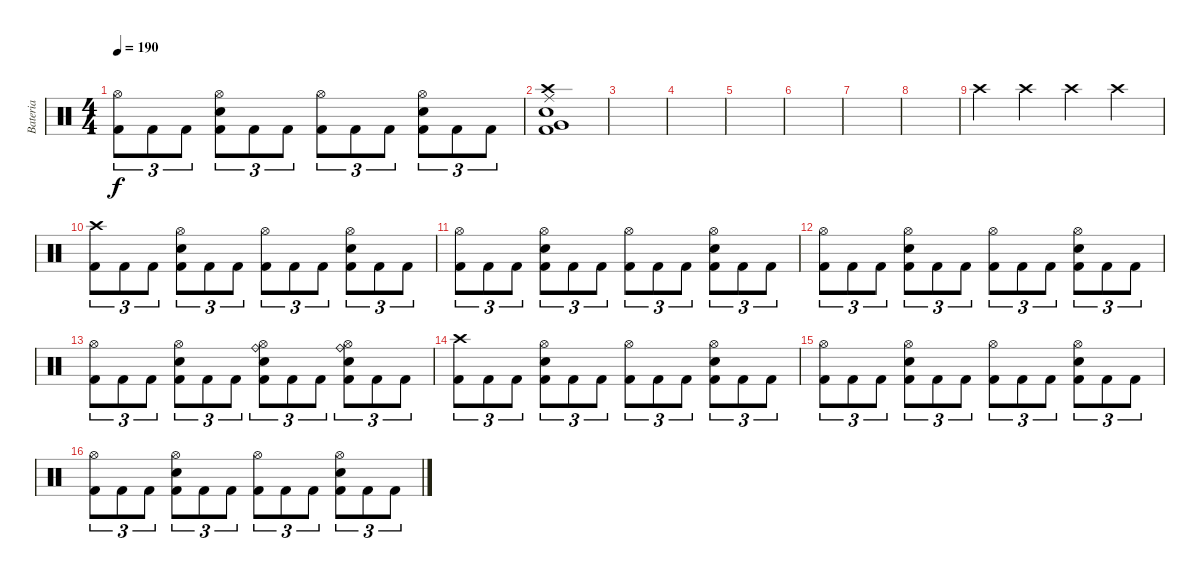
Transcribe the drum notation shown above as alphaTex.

\track ("Bateria" "Bateria") {instrument percussion}
\staff {score}
\articulation defaults
\ts (4 4)
\tempo 190
\clef neutral
\ks c
("Hi-Hat (open)" "Kick (hit) 2").8{tu (3 2) dy f} "Kick (hit) 2".8{tu (3 2)} "Kick (hit) 2".8{tu (3 2)} ("Hi-Hat (open)" "Electric Snare (hit)" "Kick (hit) 2").8{tu (3 2)} "Kick (hit) 2".8{tu (3 2)} "Kick (hit) 2".8{tu (3 2)} ("Hi-Hat (open)" "Kick (hit) 2").8{tu (3 2)} "Kick (hit) 2".8{tu (3 2)} "Kick (hit) 2".8{tu (3 2)} ("Hi-Hat (open)" "Electric Snare (hit)" "Kick (hit) 2").8{tu (3 2)} "Kick (hit) 2".8{tu (3 2)} "Kick (hit) 2".8{tu (3 2)} |
("Crash high (hit)" "Electric Snare (hit)" "Ride (middle)" "Kick (hit) 2" "Very Low Tom (hit)").1 |
|
|
|
|
|
|
"Crash high (hit)".4 "Crash high (hit)".4 "Crash high (hit)".4 "Crash high (hit)".4 |
("Crash high (hit)" "Kick (hit) 2").8{tu (3 2)} "Kick (hit) 2".8{tu (3 2)} "Kick (hit) 2".8{tu (3 2)} ("Hi-Hat (open)" "Electric Snare (hit)" "Kick (hit) 2").8{tu (3 2)} "Kick (hit) 2".8{tu (3 2)} "Kick (hit) 2".8{tu (3 2)} ("Hi-Hat (open)" "Kick (hit) 2").8{tu (3 2)} "Kick (hit) 2".8{tu (3 2)} "Kick (hit) 2".8{tu (3 2)} ("Hi-Hat (open)" "Electric Snare (hit)" "Kick (hit) 2").8{tu (3 2)} "Kick (hit) 2".8{tu (3 2)} "Kick (hit) 2".8{tu (3 2)} |
("Hi-Hat (open)" "Kick (hit) 2").8{tu (3 2)} "Kick (hit) 2".8{tu (3 2)} "Kick (hit) 2".8{tu (3 2)} ("Hi-Hat (open)" "Electric Snare (hit)" "Kick (hit) 2").8{tu (3 2)} "Kick (hit) 2".8{tu (3 2)} "Kick (hit) 2".8{tu (3 2)} ("Hi-Hat (open)" "Kick (hit) 2").8{tu (3 2)} "Kick (hit) 2".8{tu (3 2)} "Kick (hit) 2".8{tu (3 2)} ("Hi-Hat (open)" "Electric Snare (hit)" "Kick (hit) 2").8{tu (3 2)} "Kick (hit) 2".8{tu (3 2)} "Kick (hit) 2".8{tu (3 2)} |
("Hi-Hat (open)" "Kick (hit) 2").8{tu (3 2)} "Kick (hit) 2".8{tu (3 2)} "Kick (hit) 2".8{tu (3 2)} ("Hi-Hat (open)" "Electric Snare (hit)" "Kick (hit) 2").8{tu (3 2)} "Kick (hit) 2".8{tu (3 2)} "Kick (hit) 2".8{tu (3 2)} ("Hi-Hat (open)" "Kick (hit) 2").8{tu (3 2)} "Kick (hit) 2".8{tu (3 2)} "Kick (hit) 2".8{tu (3 2)} ("Hi-Hat (open)" "Electric Snare (hit)" "Kick (hit) 2").8{tu (3 2)} "Kick (hit) 2".8{tu (3 2)} "Kick (hit) 2".8{tu (3 2)} |
("Hi-Hat (open)" "Kick (hit) 2").8{tu (3 2)} "Kick (hit) 2".8{tu (3 2)} "Kick (hit) 2".8{tu (3 2)} ("Hi-Hat (open)" "Electric Snare (hit)" "Kick (hit) 2").8{tu (3 2)} "Kick (hit) 2".8{tu (3 2)} "Kick (hit) 2".8{tu (3 2)} ("Ride (bell)" "Hi-Hat (open)" "Electric Snare (hit)" "Kick (hit) 2").8{tu (3 2)} "Kick (hit) 2".8{tu (3 2)} "Kick (hit) 2".8{tu (3 2)} ("Ride (bell)" "Hi-Hat (open)" "Electric Snare (hit)" "Kick (hit) 2").8{tu (3 2)} "Kick (hit) 2".8{tu (3 2)} "Kick (hit) 2".8{tu (3 2)} |
("Crash high (hit)" "Kick (hit) 2").8{tu (3 2)} "Kick (hit) 2".8{tu (3 2)} "Kick (hit) 2".8{tu (3 2)} ("Hi-Hat (open)" "Electric Snare (hit)" "Kick (hit) 2").8{tu (3 2)} "Kick (hit) 2".8{tu (3 2)} "Kick (hit) 2".8{tu (3 2)} ("Hi-Hat (open)" "Kick (hit) 2").8{tu (3 2)} "Kick (hit) 2".8{tu (3 2)} "Kick (hit) 2".8{tu (3 2)} ("Hi-Hat (open)" "Electric Snare (hit)" "Kick (hit) 2").8{tu (3 2)} "Kick (hit) 2".8{tu (3 2)} "Kick (hit) 2".8{tu (3 2)} |
("Hi-Hat (open)" "Kick (hit) 2").8{tu (3 2)} "Kick (hit) 2".8{tu (3 2)} "Kick (hit) 2".8{tu (3 2)} ("Hi-Hat (open)" "Electric Snare (hit)" "Kick (hit) 2").8{tu (3 2)} "Kick (hit) 2".8{tu (3 2)} "Kick (hit) 2".8{tu (3 2)} ("Hi-Hat (open)" "Kick (hit) 2").8{tu (3 2)} "Kick (hit) 2".8{tu (3 2)} "Kick (hit) 2".8{tu (3 2)} ("Hi-Hat (open)" "Electric Snare (hit)" "Kick (hit) 2").8{tu (3 2)} "Kick (hit) 2".8{tu (3 2)} "Kick (hit) 2".8{tu (3 2)} |
("Hi-Hat (open)" "Kick (hit) 2").8{tu (3 2)} "Kick (hit) 2".8{tu (3 2)} "Kick (hit) 2".8{tu (3 2)} ("Hi-Hat (open)" "Electric Snare (hit)" "Kick (hit) 2").8{tu (3 2)} "Kick (hit) 2".8{tu (3 2)} "Kick (hit) 2".8{tu (3 2)} ("Hi-Hat (open)" "Kick (hit) 2").8{tu (3 2)} "Kick (hit) 2".8{tu (3 2)} "Kick (hit) 2".8{tu (3 2)} ("Hi-Hat (open)" "Electric Snare (hit)" "Kick (hit) 2").8{tu (3 2)} "Kick (hit) 2".8{tu (3 2)} "Kick (hit) 2".8{tu (3 2)}
